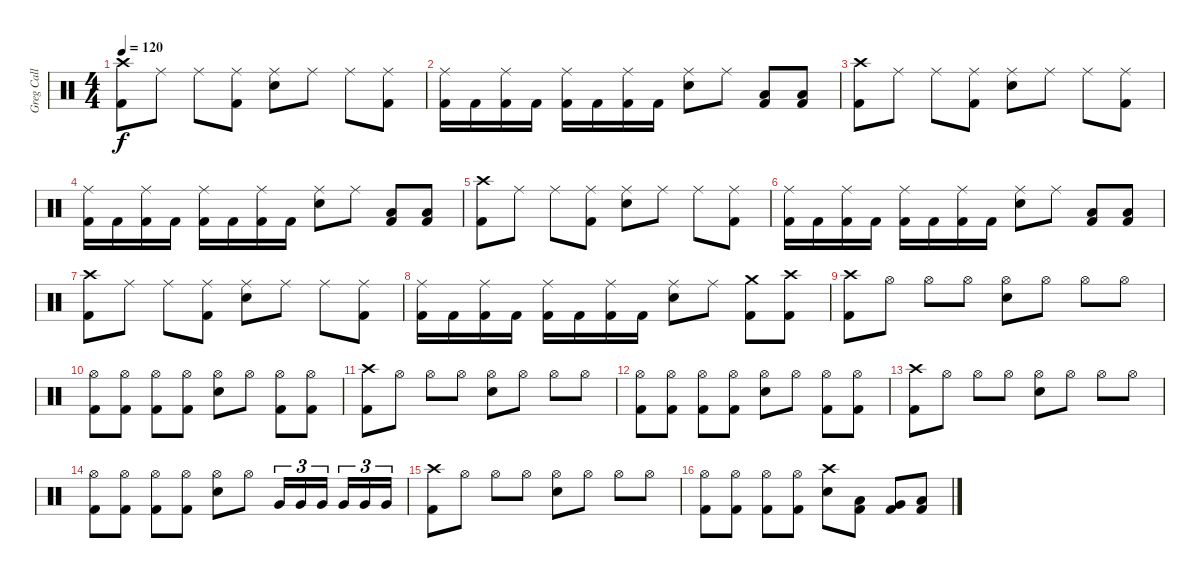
\track ("Greg Call" "Greg Call") {instrument percussion}
\staff {score}
\articulation defaults
\ts (4 4)
\tempo 120
\clef neutral
\ks c
("Crash high (hit)" "Kick (hit) 2").8{dy f} "Ride (middle)".8 "Ride (middle)".8 ("Ride (middle)" "Kick (hit) 2").8 ("Ride (middle)" "Snare (hit) 2").8 "Ride (middle)".8 "Ride (middle)".8 ("Ride (middle)" "Kick (hit) 2").8 |
("Ride (middle)" "Kick (hit) 2").16 "Kick (hit) 2".16 ("Ride (middle)" "Kick (hit) 2").16 "Kick (hit) 2".16 ("Ride (middle)" "Kick (hit) 2").16 "Kick (hit) 2".16 ("Ride (middle)" "Kick (hit) 2").16 "Kick (hit) 2".16 ("Ride (middle)" "Snare (hit) 2").8 "Ride (middle)".8 ("Low Floor Tom (hit)" "Kick (hit) 2").8 ("Low Floor Tom (hit)" "Kick (hit) 2").8 |
("Crash high (hit)" "Kick (hit) 2").8 "Ride (middle)".8 "Ride (middle)".8 ("Ride (middle)" "Kick (hit) 2").8 ("Ride (middle)" "Snare (hit) 2").8 "Ride (middle)".8 "Ride (middle)".8 ("Ride (middle)" "Kick (hit) 2").8 |
("Ride (middle)" "Kick (hit) 2").16 "Kick (hit) 2".16 ("Ride (middle)" "Kick (hit) 2").16 "Kick (hit) 2".16 ("Ride (middle)" "Kick (hit) 2").16 "Kick (hit) 2".16 ("Ride (middle)" "Kick (hit) 2").16 "Kick (hit) 2".16 ("Ride (middle)" "Snare (hit) 2").8 "Ride (middle)".8 ("Low Floor Tom (hit)" "Kick (hit) 2").8 ("Low Floor Tom (hit)" "Kick (hit) 2").8 |
("Crash high (hit)" "Kick (hit) 2").8 "Ride (middle)".8 "Ride (middle)".8 ("Ride (middle)" "Kick (hit) 2").8 ("Ride (middle)" "Snare (hit) 2").8 "Ride (middle)".8 "Ride (middle)".8 ("Ride (middle)" "Kick (hit) 2").8 |
("Ride (middle)" "Kick (hit) 2").16 "Kick (hit) 2".16 ("Ride (middle)" "Kick (hit) 2").16 "Kick (hit) 2".16 ("Ride (middle)" "Kick (hit) 2").16 "Kick (hit) 2".16 ("Ride (middle)" "Kick (hit) 2").16 "Kick (hit) 2".16 ("Ride (middle)" "Snare (hit) 2").8 "Ride (middle)".8 ("Low Floor Tom (hit)" "Kick (hit) 2").8 ("Low Floor Tom (hit)" "Kick (hit) 2").8 |
("Crash high (hit)" "Kick (hit) 2").8 "Ride (middle)".8 "Ride (middle)".8 ("Ride (middle)" "Kick (hit) 2").8 ("Ride (middle)" "Snare (hit) 2").8 "Ride (middle)".8 "Ride (middle)".8 ("Ride (middle)" "Kick (hit) 2").8 |
("Ride (middle)" "Kick (hit) 2").16 "Kick (hit) 2".16 ("Ride (middle)" "Kick (hit) 2").16 "Kick (hit) 2".16 ("Ride (middle)" "Kick (hit) 2").16 "Kick (hit) 2".16 ("Ride (middle)" "Kick (hit) 2").16 "Kick (hit) 2".16 ("Ride (middle)" "Snare (hit) 2").8 "Ride (middle)".8 ("Crash medium (hit)" "Kick (hit) 2").8 ("Crash high (hit)" "Kick (hit) 2").8 |
("Crash high (hit)" "Kick (hit) 2").8 "Hi-Hat (open)".8 "Hi-Hat (open)".8 "Hi-Hat (open)".8 ("Hi-Hat (open)" "Snare (hit) 2").8 "Hi-Hat (open)".8 "Hi-Hat (open)".8 "Hi-Hat (open)".8 |
("Hi-Hat (open)" "Kick (hit) 2").8 ("Hi-Hat (open)" "Kick (hit) 2").8 ("Hi-Hat (open)" "Kick (hit) 2").8 ("Hi-Hat (open)" "Kick (hit) 2").8 ("Hi-Hat (open)" "Snare (hit) 2").8 "Hi-Hat (open)".8 ("Hi-Hat (open)" "Kick (hit) 2").8 ("Hi-Hat (open)" "Kick (hit) 2").8 |
("Crash high (hit)" "Kick (hit) 2").8 "Hi-Hat (open)".8 "Hi-Hat (open)".8 "Hi-Hat (open)".8 ("Hi-Hat (open)" "Snare (hit) 2").8 "Hi-Hat (open)".8 "Hi-Hat (open)".8 "Hi-Hat (open)".8 |
("Hi-Hat (open)" "Kick (hit) 2").8 ("Hi-Hat (open)" "Kick (hit) 2").8 ("Hi-Hat (open)" "Kick (hit) 2").8 ("Hi-Hat (open)" "Kick (hit) 2").8 ("Hi-Hat (open)" "Snare (hit) 2").8 "Hi-Hat (open)".8 ("Hi-Hat (open)" "Kick (hit) 2").8 ("Hi-Hat (open)" "Kick (hit) 2").8 |
("Crash high (hit)" "Kick (hit) 2").8 "Hi-Hat (open)".8 "Hi-Hat (open)".8 "Hi-Hat (open)".8 ("Hi-Hat (open)" "Snare (hit) 2").8 "Hi-Hat (open)".8 "Hi-Hat (open)".8 "Hi-Hat (open)".8 |
("Hi-Hat (open)" "Kick (hit) 2").8 ("Hi-Hat (open)" "Kick (hit) 2").8 ("Hi-Hat (open)" "Kick (hit) 2").8 ("Hi-Hat (open)" "Kick (hit) 2").8 ("Hi-Hat (open)" "Snare (hit) 2").8 "Hi-Hat (open)".8 "Very Low Tom (hit)".16{tu (3 2)} "Very Low Tom (hit)".16{tu (3 2)} "Very Low Tom (hit)".16{tu (3 2)} "Very Low Tom (hit)".16{tu (3 2)} "Very Low Tom (hit)".16{tu (3 2)} "Very Low Tom (hit)".16{tu (3 2)} |
("Crash high (hit)" "Kick (hit) 2").8 "Hi-Hat (open)".8 "Hi-Hat (open)".8 "Hi-Hat (open)".8 ("Hi-Hat (open)" "Snare (hit) 2").8 "Hi-Hat (open)".8 "Hi-Hat (open)".8 "Hi-Hat (open)".8 |
("Hi-Hat (open)" "Kick (hit) 2").8 ("Hi-Hat (open)" "Kick (hit) 2").8 ("Hi-Hat (open)" "Kick (hit) 2").8 ("Hi-Hat (open)" "Kick (hit) 2").8 ("Crash high (hit)" "Snare (hit) 2").8 ("Low Tom (hit)" "Kick (hit) 2").8 ("Very Low Tom (hit)" "Kick (hit) 2").8 ("Low Floor Tom (hit)" "Kick (hit) 2").8
